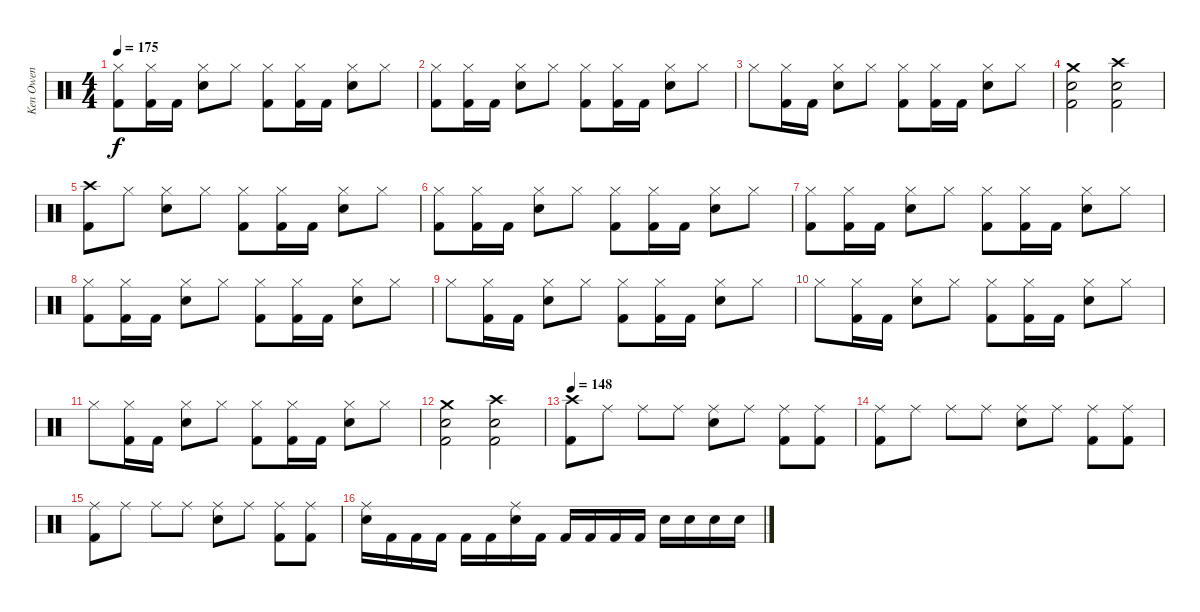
\track ("Ken Owen" "Ken Owen") {instrument percussion}
\staff {score}
\articulation defaults
\ts (4 4)
\tempo 175
\clef neutral
\ks c
("Hi-Hat (closed)" "Kick (hit) 2").8{dy f} ("Hi-Hat (closed)" "Kick (hit) 2").16 "Kick (hit) 2".16 ("Hi-Hat (closed)" "Snare (hit) 2").8 "Hi-Hat (closed)".8 ("Hi-Hat (closed)" "Kick (hit) 2").8 ("Hi-Hat (closed)" "Kick (hit) 2").16 "Kick (hit) 2".16 ("Hi-Hat (closed)" "Snare (hit) 2").8 "Hi-Hat (closed)".8 |
("Hi-Hat (closed)" "Kick (hit) 2").8 ("Hi-Hat (closed)" "Kick (hit) 2").16 "Kick (hit) 2".16 ("Hi-Hat (closed)" "Snare (hit) 2").8 "Hi-Hat (closed)".8 ("Hi-Hat (closed)" "Kick (hit) 2").8 ("Hi-Hat (closed)" "Kick (hit) 2").16 "Kick (hit) 2".16 ("Hi-Hat (closed)" "Snare (hit) 2").8 "Hi-Hat (closed)".8 |
"Hi-Hat (closed)".8 ("Hi-Hat (closed)" "Kick (hit) 2").16 "Kick (hit) 2".16 ("Hi-Hat (closed)" "Snare (hit) 2").8 "Hi-Hat (closed)".8 ("Hi-Hat (closed)" "Kick (hit) 2").8 ("Hi-Hat (closed)" "Kick (hit) 2").16 "Kick (hit) 2".16 ("Hi-Hat (closed)" "Snare (hit) 2").8 "Hi-Hat (closed)".8 |
("Crash medium (hit)" "Snare (hit) 2" "Kick (hit) 2").2 ("Crash high (hit)" "Snare (hit) 2" "Kick (hit) 2").2 |
("Crash high (hit)" "Kick (hit) 2").8 "Hi-Hat (closed)".8 ("Hi-Hat (closed)" "Snare (hit) 2").8 "Hi-Hat (closed)".8 ("Hi-Hat (closed)" "Kick (hit) 2").8 ("Hi-Hat (closed)" "Kick (hit) 2").16 "Kick (hit) 2".16 ("Hi-Hat (closed)" "Snare (hit) 2").8 "Hi-Hat (closed)".8 |
("Hi-Hat (closed)" "Kick (hit) 2").8 ("Hi-Hat (closed)" "Kick (hit) 2").16 "Kick (hit) 2".16 ("Hi-Hat (closed)" "Snare (hit) 2").8 "Hi-Hat (closed)".8 ("Hi-Hat (closed)" "Kick (hit) 2").8 ("Hi-Hat (closed)" "Kick (hit) 2").16 "Kick (hit) 2".16 ("Hi-Hat (closed)" "Snare (hit) 2").8 "Hi-Hat (closed)".8 |
("Hi-Hat (closed)" "Kick (hit) 2").8 ("Hi-Hat (closed)" "Kick (hit) 2").16 "Kick (hit) 2".16 ("Hi-Hat (closed)" "Snare (hit) 2").8 "Hi-Hat (closed)".8 ("Hi-Hat (closed)" "Kick (hit) 2").8 ("Hi-Hat (closed)" "Kick (hit) 2").16 "Kick (hit) 2".16 ("Hi-Hat (closed)" "Snare (hit) 2").8 "Hi-Hat (closed)".8 |
("Hi-Hat (closed)" "Kick (hit) 2").8 ("Hi-Hat (closed)" "Kick (hit) 2").16 "Kick (hit) 2".16 ("Hi-Hat (closed)" "Snare (hit) 2").8 "Hi-Hat (closed)".8 ("Hi-Hat (closed)" "Kick (hit) 2").8 ("Hi-Hat (closed)" "Kick (hit) 2").16 "Kick (hit) 2".16 ("Hi-Hat (closed)" "Snare (hit) 2").8 "Hi-Hat (closed)".8 |
"Hi-Hat (closed)".8 ("Hi-Hat (closed)" "Kick (hit) 2").16 "Kick (hit) 2".16 ("Hi-Hat (closed)" "Snare (hit) 2").8 "Hi-Hat (closed)".8 ("Hi-Hat (closed)" "Kick (hit) 2").8 ("Hi-Hat (closed)" "Kick (hit) 2").16 "Kick (hit) 2".16 ("Hi-Hat (closed)" "Snare (hit) 2").8 "Hi-Hat (closed)".8 |
"Hi-Hat (closed)".8 ("Hi-Hat (closed)" "Kick (hit) 2").16 "Kick (hit) 2".16 ("Hi-Hat (closed)" "Snare (hit) 2").8 "Hi-Hat (closed)".8 ("Hi-Hat (closed)" "Kick (hit) 2").8 ("Hi-Hat (closed)" "Kick (hit) 2").16 "Kick (hit) 2".16 ("Hi-Hat (closed)" "Snare (hit) 2").8 "Hi-Hat (closed)".8 |
"Hi-Hat (closed)".8 ("Hi-Hat (closed)" "Kick (hit) 2").16 "Kick (hit) 2".16 ("Hi-Hat (closed)" "Snare (hit) 2").8 "Hi-Hat (closed)".8 ("Hi-Hat (closed)" "Kick (hit) 2").8 ("Hi-Hat (closed)" "Kick (hit) 2").16 "Kick (hit) 2".16 ("Hi-Hat (closed)" "Snare (hit) 2").8 "Hi-Hat (closed)".8 |
("Crash medium (hit)" "Snare (hit) 2" "Kick (hit) 2").2 ("Crash high (hit)" "Snare (hit) 2" "Kick (hit) 2").2 |
\tempo 148
("Crash high (hit)" "Kick (hit) 2").8 "Ride (middle)".8 "Ride (middle)".8 "Ride (middle)".8 ("Ride (middle)" "Snare (hit) 2").8 "Ride (middle)".8 ("Ride (middle)" "Kick (hit) 2").8 ("Ride (middle)" "Kick (hit) 2").8 |
("Ride (middle)" "Kick (hit) 2").8 "Ride (middle)".8 "Ride (middle)".8 "Ride (middle)".8 ("Ride (middle)" "Snare (hit) 2").8 "Ride (middle)".8 ("Ride (middle)" "Kick (hit) 2").8 ("Ride (middle)" "Kick (hit) 2").8 |
("Ride (middle)" "Kick (hit) 2").8 "Ride (middle)".8 "Ride (middle)".8 "Ride (middle)".8 ("Ride (middle)" "Snare (hit) 2").8 "Ride (middle)".8 ("Ride (middle)" "Kick (hit) 2").8 ("Ride (middle)" "Kick (hit) 2").8 |
("Ride (middle)" "Snare (hit) 2").16 "Kick (hit) 2".16 "Kick (hit) 2".16 "Kick (hit) 2".16 "Kick (hit) 2".16 "Kick (hit) 2".16 ("Ride (middle)" "Snare (hit) 2").16 "Kick (hit) 2".16 "Kick (hit) 2".16 "Kick (hit) 2".16 "Kick (hit) 2".16 "Kick (hit) 2".16 "Snare (hit) 2".16 "Snare (hit) 2".16 "Snare (hit) 2".16 "Snare (hit) 2".16
